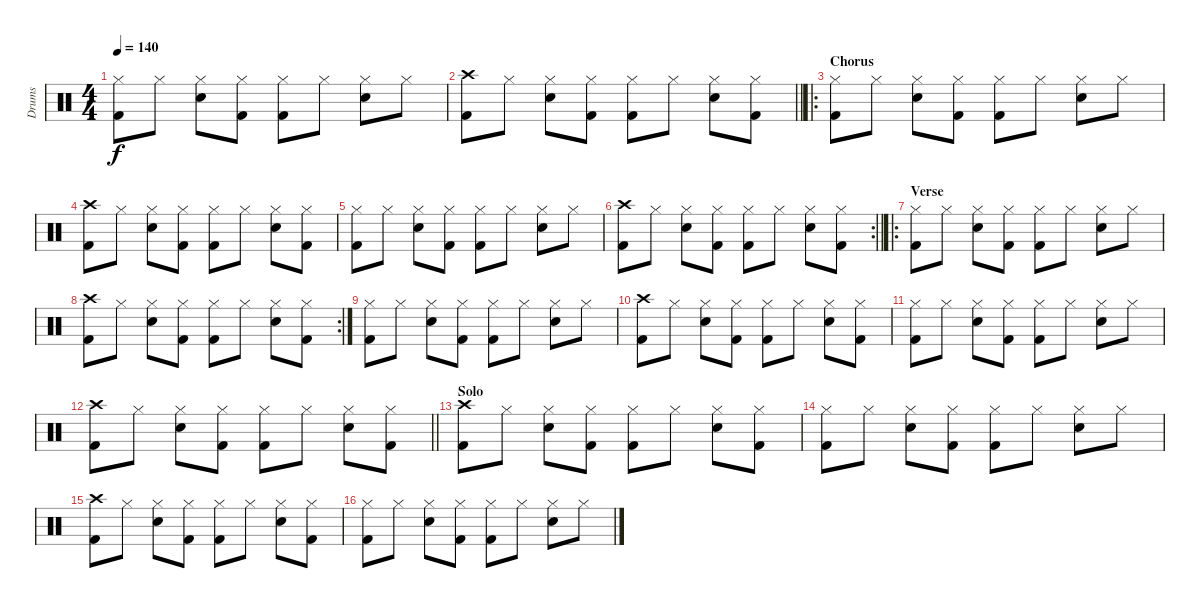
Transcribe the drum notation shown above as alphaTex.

\track ("Drums" "Drums") {instrument percussion}
\staff {score}
\articulation defaults
\ts (4 4)
\tempo 140
\clef neutral
\ks c
("Kick (hit) 2" "Hi-Hat (closed)").8{dy f} "Hi-Hat (closed)".8 ("Hi-Hat (closed)" "Electric Snare (hit)").8 ("Kick (hit) 2" "Hi-Hat (closed)").8 ("Kick (hit) 2" "Hi-Hat (closed)").8 "Hi-Hat (closed)".8 ("Hi-Hat (closed)" "Electric Snare (hit)").8 "Hi-Hat (closed)".8 |
\barLineRight lightlight
("Kick (hit) 2" "Crash high (hit)").8 "Hi-Hat (closed)".8 ("Hi-Hat (closed)" "Electric Snare (hit)").8 ("Kick (hit) 2" "Hi-Hat (closed)").8 ("Kick (hit) 2" "Hi-Hat (closed)").8 "Hi-Hat (closed)".8 ("Hi-Hat (closed)" "Electric Snare (hit)").8 ("Kick (hit) 2" "Hi-Hat (closed)").8 |
\ro
\section ("" "Chorus")
("Kick (hit) 2" "Hi-Hat (closed)").8 "Hi-Hat (closed)".8 ("Hi-Hat (closed)" "Electric Snare (hit)").8 ("Kick (hit) 2" "Hi-Hat (closed)").8 ("Kick (hit) 2" "Hi-Hat (closed)").8 "Hi-Hat (closed)".8 ("Hi-Hat (closed)" "Electric Snare (hit)").8 "Hi-Hat (closed)".8 |
("Kick (hit) 2" "Crash high (hit)").8 "Hi-Hat (closed)".8 ("Hi-Hat (closed)" "Electric Snare (hit)").8 ("Kick (hit) 2" "Hi-Hat (closed)").8 ("Kick (hit) 2" "Hi-Hat (closed)").8 "Hi-Hat (closed)".8 ("Hi-Hat (closed)" "Electric Snare (hit)").8 ("Kick (hit) 2" "Hi-Hat (closed)").8 |
("Kick (hit) 2" "Hi-Hat (closed)").8 "Hi-Hat (closed)".8 ("Hi-Hat (closed)" "Electric Snare (hit)").8 ("Kick (hit) 2" "Hi-Hat (closed)").8 ("Kick (hit) 2" "Hi-Hat (closed)").8 "Hi-Hat (closed)".8 ("Hi-Hat (closed)" "Electric Snare (hit)").8 "Hi-Hat (closed)".8 |
\rc 2
\barLineRight lightlight
("Kick (hit) 2" "Crash high (hit)").8 "Hi-Hat (closed)".8 ("Hi-Hat (closed)" "Electric Snare (hit)").8 ("Kick (hit) 2" "Hi-Hat (closed)").8 ("Kick (hit) 2" "Hi-Hat (closed)").8 "Hi-Hat (closed)".8 ("Hi-Hat (closed)" "Electric Snare (hit)").8 ("Kick (hit) 2" "Hi-Hat (closed)").8 |
\ro
\section ("" "Verse")
("Kick (hit) 2" "Hi-Hat (closed)").8 "Hi-Hat (closed)".8 ("Hi-Hat (closed)" "Electric Snare (hit)").8 ("Kick (hit) 2" "Hi-Hat (closed)").8 ("Kick (hit) 2" "Hi-Hat (closed)").8 "Hi-Hat (closed)".8 ("Hi-Hat (closed)" "Electric Snare (hit)").8 "Hi-Hat (closed)".8 |
\rc 2
("Kick (hit) 2" "Crash high (hit)").8 "Hi-Hat (closed)".8 ("Hi-Hat (closed)" "Electric Snare (hit)").8 ("Kick (hit) 2" "Hi-Hat (closed)").8 ("Kick (hit) 2" "Hi-Hat (closed)").8 "Hi-Hat (closed)".8 ("Hi-Hat (closed)" "Electric Snare (hit)").8 ("Kick (hit) 2" "Hi-Hat (closed)").8 |
("Kick (hit) 2" "Hi-Hat (closed)").8 "Hi-Hat (closed)".8 ("Hi-Hat (closed)" "Electric Snare (hit)").8 ("Kick (hit) 2" "Hi-Hat (closed)").8 ("Kick (hit) 2" "Hi-Hat (closed)").8 "Hi-Hat (closed)".8 ("Hi-Hat (closed)" "Electric Snare (hit)").8 "Hi-Hat (closed)".8 |
("Kick (hit) 2" "Crash high (hit)").8 "Hi-Hat (closed)".8 ("Hi-Hat (closed)" "Electric Snare (hit)").8 ("Kick (hit) 2" "Hi-Hat (closed)").8 ("Kick (hit) 2" "Hi-Hat (closed)").8 "Hi-Hat (closed)".8 ("Hi-Hat (closed)" "Electric Snare (hit)").8 ("Kick (hit) 2" "Hi-Hat (closed)").8 |
("Kick (hit) 2" "Hi-Hat (closed)").8 "Hi-Hat (closed)".8 ("Hi-Hat (closed)" "Electric Snare (hit)").8 ("Kick (hit) 2" "Hi-Hat (closed)").8 ("Kick (hit) 2" "Hi-Hat (closed)").8 "Hi-Hat (closed)".8 ("Hi-Hat (closed)" "Electric Snare (hit)").8 "Hi-Hat (closed)".8 |
\barLineRight lightlight
("Kick (hit) 2" "Crash high (hit)").8 "Hi-Hat (closed)".8 ("Hi-Hat (closed)" "Electric Snare (hit)").8 ("Kick (hit) 2" "Hi-Hat (closed)").8 ("Kick (hit) 2" "Hi-Hat (closed)").8 "Hi-Hat (closed)".8 ("Hi-Hat (closed)" "Electric Snare (hit)").8 ("Kick (hit) 2" "Hi-Hat (closed)").8 |
\section ("" "Solo")
("Kick (hit) 2" "Crash high (hit)").8 "Hi-Hat (closed)".8 ("Hi-Hat (closed)" "Electric Snare (hit)").8 ("Kick (hit) 2" "Hi-Hat (closed)").8 ("Kick (hit) 2" "Hi-Hat (closed)").8 "Hi-Hat (closed)".8 ("Hi-Hat (closed)" "Electric Snare (hit)").8 ("Kick (hit) 2" "Hi-Hat (closed)").8 |
("Kick (hit) 2" "Hi-Hat (closed)").8 "Hi-Hat (closed)".8 ("Hi-Hat (closed)" "Electric Snare (hit)").8 ("Kick (hit) 2" "Hi-Hat (closed)").8 ("Kick (hit) 2" "Hi-Hat (closed)").8 "Hi-Hat (closed)".8 ("Hi-Hat (closed)" "Electric Snare (hit)").8 "Hi-Hat (closed)".8 |
("Kick (hit) 2" "Crash high (hit)").8 "Hi-Hat (closed)".8 ("Hi-Hat (closed)" "Electric Snare (hit)").8 ("Kick (hit) 2" "Hi-Hat (closed)").8 ("Kick (hit) 2" "Hi-Hat (closed)").8 "Hi-Hat (closed)".8 ("Hi-Hat (closed)" "Electric Snare (hit)").8 ("Kick (hit) 2" "Hi-Hat (closed)").8 |
("Kick (hit) 2" "Hi-Hat (closed)").8 "Hi-Hat (closed)".8 ("Hi-Hat (closed)" "Electric Snare (hit)").8 ("Kick (hit) 2" "Hi-Hat (closed)").8 ("Kick (hit) 2" "Hi-Hat (closed)").8 "Hi-Hat (closed)".8 ("Hi-Hat (closed)" "Electric Snare (hit)").8 "Hi-Hat (closed)".8
